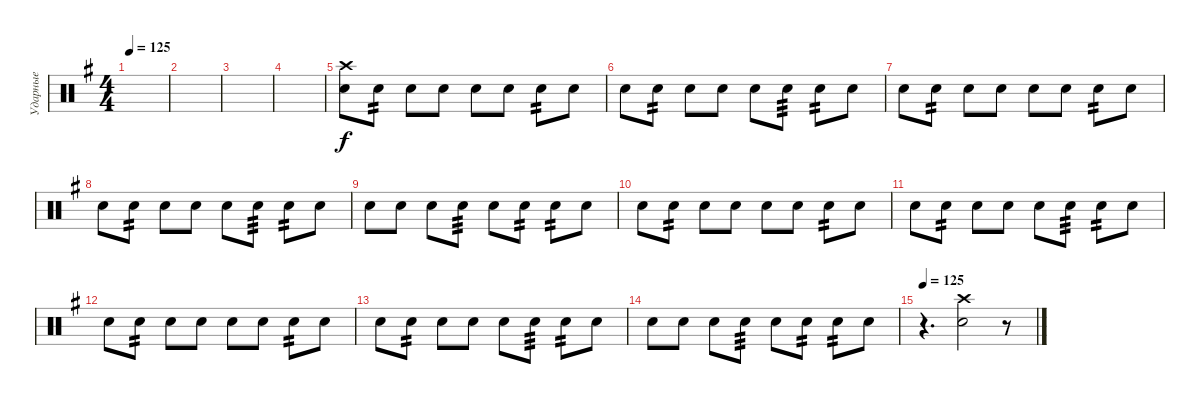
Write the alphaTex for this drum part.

\track ("Ударные" "Ударные") {instrument percussion}
\staff {score}
\articulation defaults
\ts (4 4)
\tempo 125
\clef neutral
\ks eminor
|
|
|
|
("Crash high (hit)" "Electric Snare (hit)").8 "Electric Snare (hit)".8{tp 2} "Electric Snare (hit)".8 "Electric Snare (hit)".8 "Electric Snare (hit)".8 "Electric Snare (hit)".8 "Electric Snare (hit)".8{tp 2} "Electric Snare (hit)".8 |
"Electric Snare (hit)".8 "Electric Snare (hit)".8{tp 2} "Electric Snare (hit)".8 "Electric Snare (hit)".8 "Electric Snare (hit)".8 "Electric Snare (hit)".8{tp 3} "Electric Snare (hit)".8{tp 2} "Electric Snare (hit)".8 |
"Electric Snare (hit)".8 "Electric Snare (hit)".8{tp 2} "Electric Snare (hit)".8 "Electric Snare (hit)".8 "Electric Snare (hit)".8 "Electric Snare (hit)".8 "Electric Snare (hit)".8{tp 2} "Electric Snare (hit)".8 |
"Electric Snare (hit)".8 "Electric Snare (hit)".8{tp 2} "Electric Snare (hit)".8 "Electric Snare (hit)".8 "Electric Snare (hit)".8 "Electric Snare (hit)".8{tp 3} "Electric Snare (hit)".8{tp 2} "Electric Snare (hit)".8 |
"Electric Snare (hit)".8 "Electric Snare (hit)".8 "Electric Snare (hit)".8 "Electric Snare (hit)".8{tp 3} "Electric Snare (hit)".8 "Electric Snare (hit)".8{tp 2} "Electric Snare (hit)".8{tp 2} "Electric Snare (hit)".8 |
"Electric Snare (hit)".8 "Electric Snare (hit)".8{tp 2} "Electric Snare (hit)".8 "Electric Snare (hit)".8 "Electric Snare (hit)".8 "Electric Snare (hit)".8 "Electric Snare (hit)".8{tp 2} "Electric Snare (hit)".8 |
"Electric Snare (hit)".8 "Electric Snare (hit)".8{tp 2} "Electric Snare (hit)".8 "Electric Snare (hit)".8 "Electric Snare (hit)".8 "Electric Snare (hit)".8{tp 3} "Electric Snare (hit)".8{tp 2} "Electric Snare (hit)".8 |
"Electric Snare (hit)".8 "Electric Snare (hit)".8{tp 2} "Electric Snare (hit)".8 "Electric Snare (hit)".8 "Electric Snare (hit)".8 "Electric Snare (hit)".8 "Electric Snare (hit)".8{tp 2} "Electric Snare (hit)".8 |
"Electric Snare (hit)".8 "Electric Snare (hit)".8{tp 2} "Electric Snare (hit)".8 "Electric Snare (hit)".8 "Electric Snare (hit)".8 "Electric Snare (hit)".8{tp 3} "Electric Snare (hit)".8{tp 2} "Electric Snare (hit)".8 |
"Electric Snare (hit)".8 "Electric Snare (hit)".8 "Electric Snare (hit)".8 "Electric Snare (hit)".8{tp 3} "Electric Snare (hit)".8 "Electric Snare (hit)".8{tp 2} "Electric Snare (hit)".8{tp 2} "Electric Snare (hit)".8 |
\tempo 125
r.4{d} ("Crash high (hit)" "Electric Snare (hit)").2 r.8
